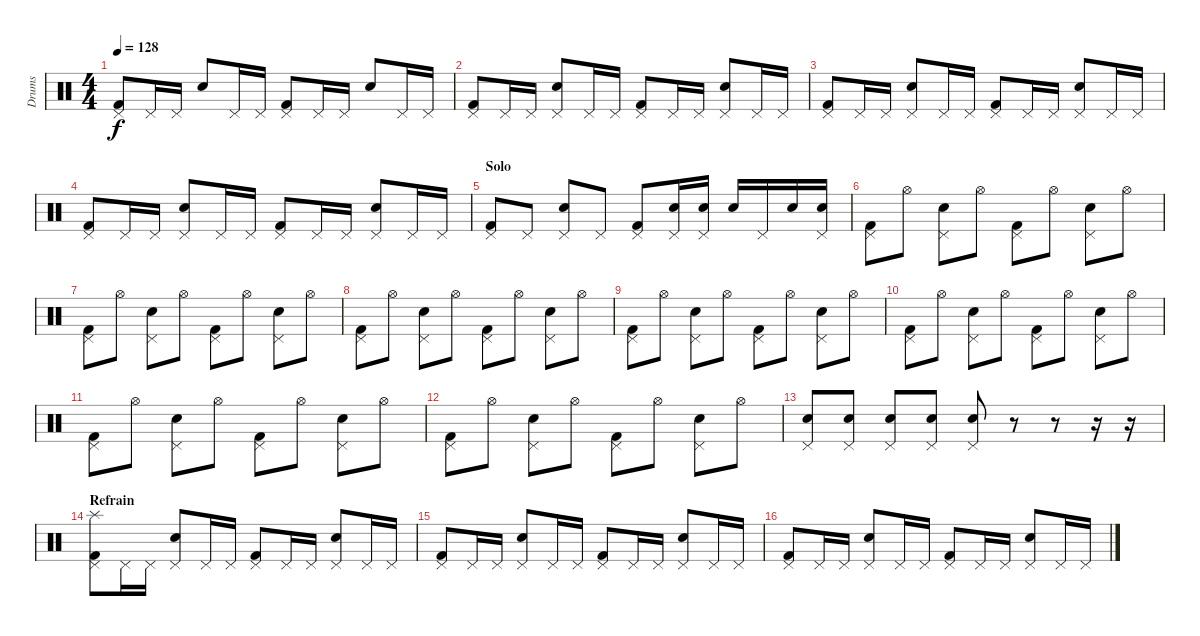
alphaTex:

\track ("Drums" "Drums") {instrument percussion}
\staff {score}
\articulation defaults
\ts (4 4)
\tempo 128
\clef neutral
\ks c
("Pedal Hi-Hat (hit)" "Kick (hit) 2").8{dy f} "Pedal Hi-Hat (hit)".16 "Pedal Hi-Hat (hit)".16 "Snare (hit) 2".8 "Pedal Hi-Hat (hit)".16 "Pedal Hi-Hat (hit)".16 ("Pedal Hi-Hat (hit)" "Kick (hit) 2").8 "Pedal Hi-Hat (hit)".16 "Pedal Hi-Hat (hit)".16 "Snare (hit) 2".8 "Pedal Hi-Hat (hit)".16 "Pedal Hi-Hat (hit)".16 |
("Pedal Hi-Hat (hit)" "Kick (hit) 2").8 "Pedal Hi-Hat (hit)".16 "Pedal Hi-Hat (hit)".16 ("Pedal Hi-Hat (hit)" "Snare (hit) 2").8 "Pedal Hi-Hat (hit)".16 "Pedal Hi-Hat (hit)".16 ("Pedal Hi-Hat (hit)" "Kick (hit) 2").8 "Pedal Hi-Hat (hit)".16 "Pedal Hi-Hat (hit)".16 ("Pedal Hi-Hat (hit)" "Snare (hit) 2").8 "Pedal Hi-Hat (hit)".16 "Pedal Hi-Hat (hit)".16 |
("Pedal Hi-Hat (hit)" "Kick (hit) 2").8 "Pedal Hi-Hat (hit)".16 "Pedal Hi-Hat (hit)".16 ("Pedal Hi-Hat (hit)" "Snare (hit) 2").8 "Pedal Hi-Hat (hit)".16 "Pedal Hi-Hat (hit)".16 ("Pedal Hi-Hat (hit)" "Kick (hit) 2").8 "Pedal Hi-Hat (hit)".16 "Pedal Hi-Hat (hit)".16 ("Pedal Hi-Hat (hit)" "Snare (hit) 2").8 "Pedal Hi-Hat (hit)".16 "Pedal Hi-Hat (hit)".16 |
("Pedal Hi-Hat (hit)" "Kick (hit) 2").8 "Pedal Hi-Hat (hit)".16 "Pedal Hi-Hat (hit)".16 ("Pedal Hi-Hat (hit)" "Snare (hit) 2").8 "Pedal Hi-Hat (hit)".16 "Pedal Hi-Hat (hit)".16 ("Pedal Hi-Hat (hit)" "Kick (hit) 2").8 "Pedal Hi-Hat (hit)".16 "Pedal Hi-Hat (hit)".16 ("Pedal Hi-Hat (hit)" "Snare (hit) 2").8 "Pedal Hi-Hat (hit)".16 "Pedal Hi-Hat (hit)".16 |
\section ("" "Solo")
("Pedal Hi-Hat (hit)" "Kick (hit) 2").8{volume 12} "Pedal Hi-Hat (hit)".8 ("Pedal Hi-Hat (hit)" "Snare (hit) 2").8 "Pedal Hi-Hat (hit)".8 ("Pedal Hi-Hat (hit)" "Kick (hit) 2").8 ("Pedal Hi-Hat (hit)" "Snare (hit) 2").16 ("Pedal Hi-Hat (hit)" "Snare (hit) 2").16 "Snare (hit) 2".16 "Pedal Hi-Hat (hit)".16 "Snare (hit) 2".16 ("Pedal Hi-Hat (hit)" "Snare (hit) 2").16 |
("Kick (hit) 2" "Pedal Hi-Hat (hit)").8{volume 10} "Hi-Hat (open)".8 ("Pedal Hi-Hat (hit)" "Snare (hit) 2").8 "Hi-Hat (open)".8 ("Kick (hit) 2" "Pedal Hi-Hat (hit)").8 "Hi-Hat (open)".8 ("Pedal Hi-Hat (hit)" "Snare (hit) 2").8 "Hi-Hat (open)".8 |
("Kick (hit) 2" "Pedal Hi-Hat (hit)").8 "Hi-Hat (open)".8 ("Pedal Hi-Hat (hit)" "Snare (hit) 2").8 "Hi-Hat (open)".8 ("Kick (hit) 2" "Pedal Hi-Hat (hit)").8 "Hi-Hat (open)".8 ("Pedal Hi-Hat (hit)" "Snare (hit) 2").8 "Hi-Hat (open)".8 |
("Kick (hit) 2" "Pedal Hi-Hat (hit)").8 "Hi-Hat (open)".8 ("Pedal Hi-Hat (hit)" "Snare (hit) 2").8 "Hi-Hat (open)".8 ("Kick (hit) 2" "Pedal Hi-Hat (hit)").8 "Hi-Hat (open)".8 ("Pedal Hi-Hat (hit)" "Snare (hit) 2").8 "Hi-Hat (open)".8 |
("Kick (hit) 2" "Pedal Hi-Hat (hit)").8 "Hi-Hat (open)".8 ("Pedal Hi-Hat (hit)" "Snare (hit) 2").8 "Hi-Hat (open)".8 ("Kick (hit) 2" "Pedal Hi-Hat (hit)").8 "Hi-Hat (open)".8 ("Pedal Hi-Hat (hit)" "Snare (hit) 2").8 "Hi-Hat (open)".8 |
("Kick (hit) 2" "Pedal Hi-Hat (hit)").8 "Hi-Hat (open)".8 ("Pedal Hi-Hat (hit)" "Snare (hit) 2").8 "Hi-Hat (open)".8 ("Kick (hit) 2" "Pedal Hi-Hat (hit)").8 "Hi-Hat (open)".8 ("Pedal Hi-Hat (hit)" "Snare (hit) 2").8 "Hi-Hat (open)".8 |
("Kick (hit) 2" "Pedal Hi-Hat (hit)").8 "Hi-Hat (open)".8 ("Pedal Hi-Hat (hit)" "Snare (hit) 2").8 "Hi-Hat (open)".8 ("Kick (hit) 2" "Pedal Hi-Hat (hit)").8 "Hi-Hat (open)".8 ("Pedal Hi-Hat (hit)" "Snare (hit) 2").8 "Hi-Hat (open)".8 |
("Kick (hit) 2" "Pedal Hi-Hat (hit)").8 "Hi-Hat (open)".8 ("Pedal Hi-Hat (hit)" "Snare (hit) 2").8 "Hi-Hat (open)".8 ("Kick (hit) 2" "Pedal Hi-Hat (hit)").8 "Hi-Hat (open)".8 ("Pedal Hi-Hat (hit)" "Snare (hit) 2").8 "Hi-Hat (open)".8 |
("Pedal Hi-Hat (hit)" "Snare (hit) 2").8 ("Pedal Hi-Hat (hit)" "Snare (hit) 2").8 ("Pedal Hi-Hat (hit)" "Snare (hit) 2").8 ("Pedal Hi-Hat (hit)" "Snare (hit) 2").8 ("Pedal Hi-Hat (hit)" "Snare (hit) 2").8 r.8 r.8 r.16 r.16 |
\section ("" "Refrain")
("Splash (hit)" "Pedal Hi-Hat (hit)" "Kick (hit) 2").8{volume 11} "Pedal Hi-Hat (hit)".16 "Pedal Hi-Hat (hit)".16 ("Pedal Hi-Hat (hit)" "Snare (hit) 2").8 "Pedal Hi-Hat (hit)".16 "Pedal Hi-Hat (hit)".16 ("Pedal Hi-Hat (hit)" "Kick (hit) 2").8 "Pedal Hi-Hat (hit)".16 "Pedal Hi-Hat (hit)".16 ("Pedal Hi-Hat (hit)" "Snare (hit) 2").8 "Pedal Hi-Hat (hit)".16 "Pedal Hi-Hat (hit)".16 |
("Pedal Hi-Hat (hit)" "Kick (hit) 2").8 "Pedal Hi-Hat (hit)".16 "Pedal Hi-Hat (hit)".16 ("Pedal Hi-Hat (hit)" "Snare (hit) 2").8 "Pedal Hi-Hat (hit)".16 "Pedal Hi-Hat (hit)".16 ("Pedal Hi-Hat (hit)" "Kick (hit) 2").8 "Pedal Hi-Hat (hit)".16 "Pedal Hi-Hat (hit)".16 ("Pedal Hi-Hat (hit)" "Snare (hit) 2").8 "Pedal Hi-Hat (hit)".16 "Pedal Hi-Hat (hit)".16 |
("Pedal Hi-Hat (hit)" "Kick (hit) 2").8 "Pedal Hi-Hat (hit)".16 "Pedal Hi-Hat (hit)".16 ("Pedal Hi-Hat (hit)" "Snare (hit) 2").8 "Pedal Hi-Hat (hit)".16 "Pedal Hi-Hat (hit)".16 ("Pedal Hi-Hat (hit)" "Kick (hit) 2").8 "Pedal Hi-Hat (hit)".16 "Pedal Hi-Hat (hit)".16 ("Pedal Hi-Hat (hit)" "Snare (hit) 2").8 "Pedal Hi-Hat (hit)".16 "Pedal Hi-Hat (hit)".16
